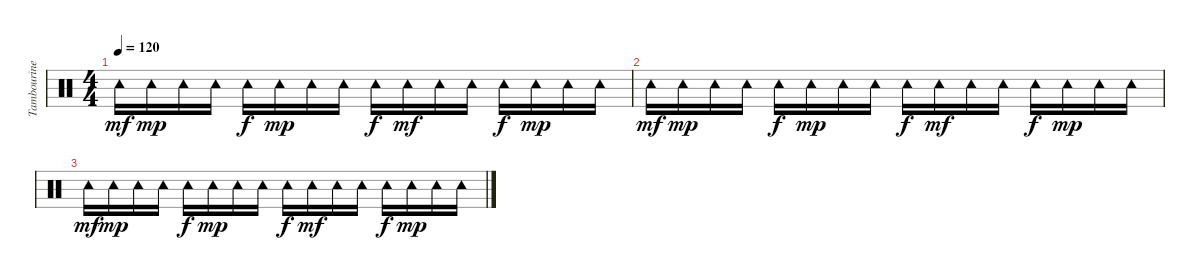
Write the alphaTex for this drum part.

\track ("Tambourine Fills" "Tambourine") {instrument percussion}
\staff {score}
\articulation defaults
\ts (4 4)
\tempo 120
\clef neutral
\ks c "Tambourine (hit)".16{dy mf} "Tambourine (hit)".16{dy mp} "Tambourine (hit)".16 "Tambourine (hit)".16 "Tambourine (hit)".16{dy f} "Tambourine (hit)".16{dy mp} "Tambourine (hit)".16 "Tambourine (hit)".16 "Tambourine (hit)".16{dy f} "Tambourine (hit)".16{dy mf} "Tambourine (hit)".16 "Tambourine (hit)".16 "Tambourine (hit)".16{dy f} "Tambourine (hit)".16{dy mp} "Tambourine (hit)".16 "Tambourine (hit)".16
|
"Tambourine (hit)".16{dy mf} "Tambourine (hit)".16{dy mp} "Tambourine (hit)".16 "Tambourine (hit)".16 "Tambourine (hit)".16{dy f} "Tambourine (hit)".16{dy mp} "Tambourine (hit)".16 "Tambourine (hit)".16 "Tambourine (hit)".16{dy f} "Tambourine (hit)".16{dy mf} "Tambourine (hit)".16 "Tambourine (hit)".16 "Tambourine (hit)".16{dy f} "Tambourine (hit)".16{dy mp} "Tambourine (hit)".16 "Tambourine (hit)".16 |
"Tambourine (hit)".16{dy mf} "Tambourine (hit)".16{dy mp} "Tambourine (hit)".16 "Tambourine (hit)".16 "Tambourine (hit)".16{dy f} "Tambourine (hit)".16{dy mp} "Tambourine (hit)".16 "Tambourine (hit)".16 "Tambourine (hit)".16{dy f} "Tambourine (hit)".16{dy mf} "Tambourine (hit)".16 "Tambourine (hit)".16 "Tambourine (hit)".16{dy f} "Tambourine (hit)".16{dy mp} "Tambourine (hit)".16 "Tambourine (hit)".16
